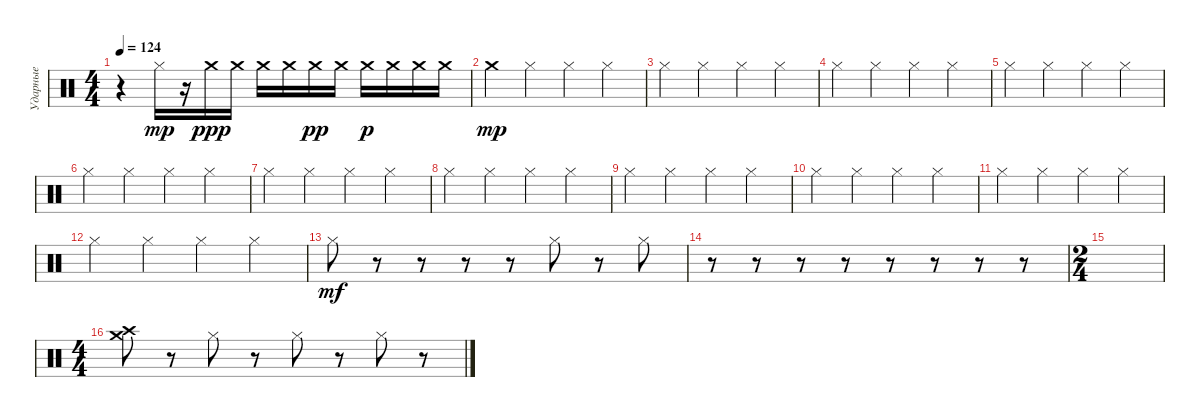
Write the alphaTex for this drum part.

\track ("Ударные" "Ударные") {instrument percussion}
\staff {score}
\articulation defaults
\ts (4 4)
\tempo 124
\clef neutral
\ks c
r.4{dy mp} "Hi-Hat (closed)".16 r.16 "Crash medium (hit)".16{dy ppp} "Crash medium (hit)".16 "Crash medium (hit)".16 "Crash medium (hit)".16 "Crash medium (hit)".16{dy pp} "Crash medium (hit)".16 "Crash medium (hit)".16{dy p} "Crash medium (hit)".16 "Crash medium (hit)".16 "Crash medium (hit)".16 |
"Crash medium (hit)".4{dy mp} "Hi-Hat (closed)".4 "Hi-Hat (closed)".4 "Hi-Hat (closed)".4 |
"Hi-Hat (closed)".4 "Hi-Hat (closed)".4 "Hi-Hat (closed)".4 "Hi-Hat (closed)".4 |
"Hi-Hat (closed)".4 "Hi-Hat (closed)".4 "Hi-Hat (closed)".4 "Hi-Hat (closed)".4 |
"Hi-Hat (closed)".4 "Hi-Hat (closed)".4 "Hi-Hat (closed)".4 "Hi-Hat (closed)".4 |
"Hi-Hat (closed)".4 "Hi-Hat (closed)".4 "Hi-Hat (closed)".4 "Hi-Hat (closed)".4 |
"Hi-Hat (closed)".4 "Hi-Hat (closed)".4 "Hi-Hat (closed)".4 "Hi-Hat (closed)".4 |
"Hi-Hat (closed)".4 "Hi-Hat (closed)".4 "Hi-Hat (closed)".4 "Hi-Hat (closed)".4 |
"Hi-Hat (closed)".4 "Hi-Hat (closed)".4 "Hi-Hat (closed)".4 "Hi-Hat (closed)".4 |
"Hi-Hat (closed)".4 "Hi-Hat (closed)".4 "Hi-Hat (closed)".4 "Hi-Hat (closed)".4 |
"Hi-Hat (closed)".4 "Hi-Hat (closed)".4 "Hi-Hat (closed)".4 "Hi-Hat (closed)".4 |
"Hi-Hat (closed)".4 "Hi-Hat (closed)".4 "Hi-Hat (closed)".4 "Hi-Hat (closed)".4 |
"Hi-Hat (closed)".8{dy mf} r.8 r.8 r.8 r.8 "Hi-Hat (closed)".8 r.8 "Hi-Hat (closed)".8 |
r.8 r.8 r.8 r.8 r.8 r.8 r.8 r.8 |
\ts (2 4)
|
\ts (4 4)
("Crash high (hit)" "Crash medium (hit)").8 r.8 "Hi-Hat (closed)".8 r.8 "Hi-Hat (closed)".8 r.8 "Hi-Hat (closed)".8 r.8
